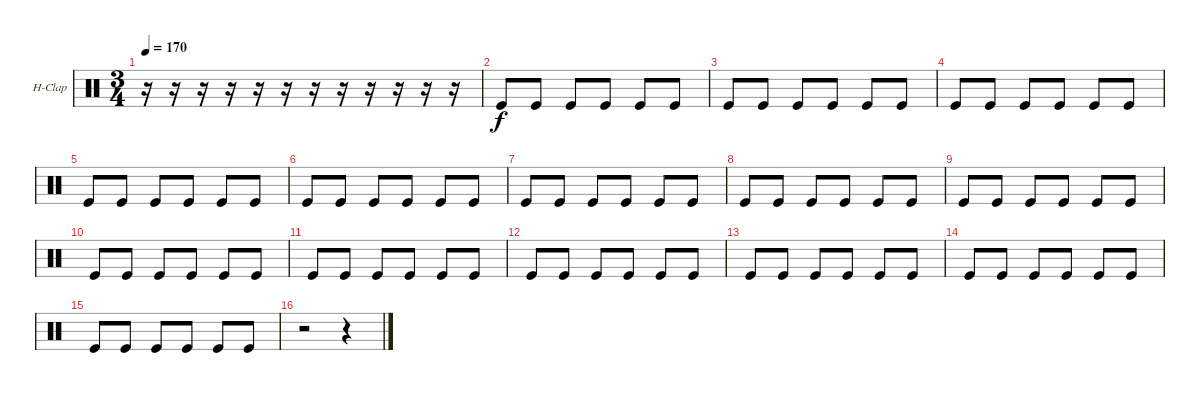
\bracketExtendMode groupsimilarinstruments
\firstSystemTrackNameOrientation horizontal
\otherSystemsTrackNameOrientation horizontal
\track ("Hand Clap" "H-Clap") {instrument percussion}
\staff {score}
\articulation defaults
\ts (3 4)
\tempo 170
\clef neutral
\ks c
r.16{dy f} r.16 r.16 r.16 r.16 r.16 r.16 r.16 r.16 r.16 r.16 r.16 |
"Kick (hit)".8 "Kick (hit)".8 "Kick (hit)".8 "Kick (hit)".8 "Kick (hit)".8 "Kick (hit)".8 |
"Kick (hit)".8 "Kick (hit)".8 "Kick (hit)".8 "Kick (hit)".8 "Kick (hit)".8 "Kick (hit)".8 |
"Kick (hit)".8 "Kick (hit)".8 "Kick (hit)".8 "Kick (hit)".8 "Kick (hit)".8 "Kick (hit)".8 |
"Kick (hit)".8 "Kick (hit)".8 "Kick (hit)".8 "Kick (hit)".8 "Kick (hit)".8 "Kick (hit)".8 |
"Kick (hit)".8 "Kick (hit)".8 "Kick (hit)".8 "Kick (hit)".8 "Kick (hit)".8 "Kick (hit)".8 |
"Kick (hit)".8 "Kick (hit)".8 "Kick (hit)".8 "Kick (hit)".8 "Kick (hit)".8 "Kick (hit)".8 |
"Kick (hit)".8 "Kick (hit)".8 "Kick (hit)".8 "Kick (hit)".8 "Kick (hit)".8 "Kick (hit)".8 |
"Kick (hit)".8 "Kick (hit)".8 "Kick (hit)".8 "Kick (hit)".8 "Kick (hit)".8 "Kick (hit)".8 |
"Kick (hit)".8 "Kick (hit)".8 "Kick (hit)".8 "Kick (hit)".8 "Kick (hit)".8 "Kick (hit)".8 |
"Kick (hit)".8 "Kick (hit)".8 "Kick (hit)".8 "Kick (hit)".8 "Kick (hit)".8 "Kick (hit)".8 |
"Kick (hit)".8 "Kick (hit)".8 "Kick (hit)".8 "Kick (hit)".8 "Kick (hit)".8 "Kick (hit)".8 |
"Kick (hit)".8 "Kick (hit)".8 "Kick (hit)".8 "Kick (hit)".8 "Kick (hit)".8 "Kick (hit)".8 |
"Kick (hit)".8 "Kick (hit)".8 "Kick (hit)".8 "Kick (hit)".8 "Kick (hit)".8 "Kick (hit)".8 |
"Kick (hit)".8 "Kick (hit)".8 "Kick (hit)".8 "Kick (hit)".8 "Kick (hit)".8 "Kick (hit)".8 |
r.2 r.4
